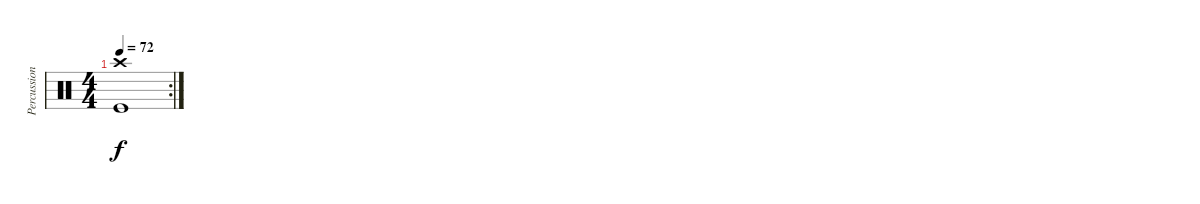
\track ("Percussion" "Percussion") {instrument percussion}
\staff {score}
\articulation defaults
\rc 2
\ts (4 4)
\tempo 72
\clef neutral
\ks c
("Crash high (hit)" "Kick (hit)").1{dy f}
